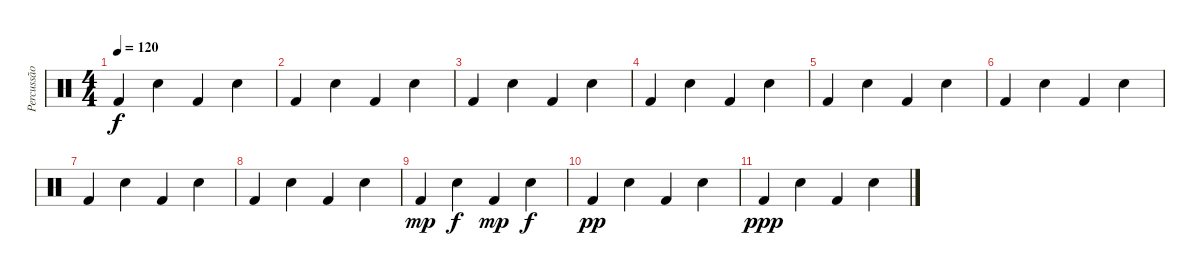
\track ("Percussão" "Percussão") {instrument percussion}
\staff {score}
\articulation defaults
\ts (4 4)
\tempo 120
\clef neutral
\ks c "Kick (hit) 2".4{dy f} "Snare (hit) 2".4 "Kick (hit) 2".4 "Snare (hit) 2".4
|
"Kick (hit) 2".4 "Snare (hit) 2".4 "Kick (hit) 2".4 "Snare (hit) 2".4 |
"Kick (hit) 2".4 "Snare (hit) 2".4 "Kick (hit) 2".4 "Snare (hit) 2".4 |
"Kick (hit) 2".4 "Snare (hit) 2".4 "Kick (hit) 2".4 "Snare (hit) 2".4 |
"Kick (hit) 2".4 "Snare (hit) 2".4 "Kick (hit) 2".4 "Snare (hit) 2".4 |
"Kick (hit) 2".4 "Snare (hit) 2".4 "Kick (hit) 2".4 "Snare (hit) 2".4 |
"Kick (hit) 2".4 "Snare (hit) 2".4 "Kick (hit) 2".4 "Snare (hit) 2".4 |
"Kick (hit) 2".4 "Snare (hit) 2".4 "Kick (hit) 2".4 "Snare (hit) 2".4 |
"Kick (hit) 2".4{dy mp} "Snare (hit) 2".4{dy f} "Kick (hit) 2".4{dy mp} "Snare (hit) 2".4{dy f} |
"Kick (hit) 2".4{dy pp} "Snare (hit) 2".4 "Kick (hit) 2".4 "Snare (hit) 2".4 |
"Kick (hit) 2".4{dy ppp} "Snare (hit) 2".4 "Kick (hit) 2".4 "Snare (hit) 2".4
